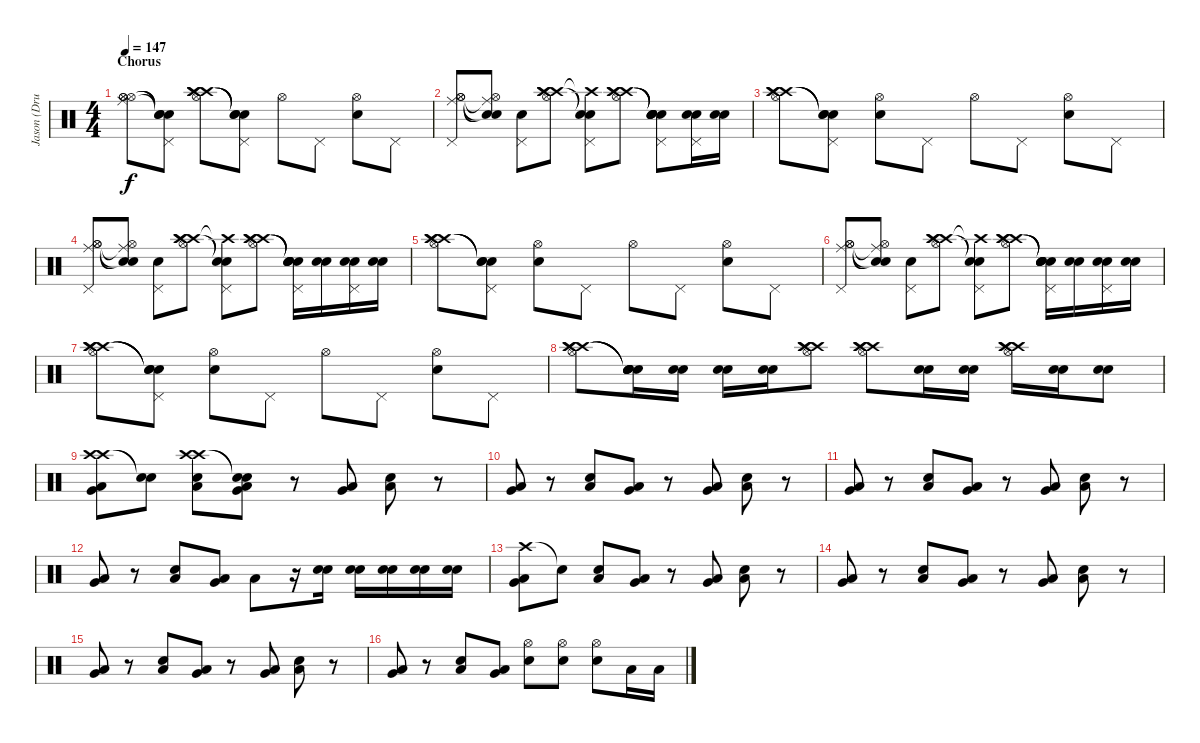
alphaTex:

\track ("Jason (Drums)" "Jason (Dru") {instrument percussion}
\staff {score}
\articulation defaults
\ts (4 4)
\section ("" "Chorus")
\tempo 147
\clef neutral
\ks c
("Ride (middle)" "Hi-Hat (open)" "Hi-Hat (open)" "Hi-Hat (open)").8{dy f} ("Snare (hit)"{t} "Snare (hit)"{t} "Snare (hit)"{t} "Pedal Hi-Hat (hit)").8 ("Crash high (hit)" "Crash high (hit)" "Crash high (hit)" "Hi-Hat (open)").8 ("Snare (hit)"{t} "Snare (hit)"{t} "Snare (hit)"{t} "Pedal Hi-Hat (hit)").8 "Hi-Hat (open)".8 "Pedal Hi-Hat (hit)".8 ("Electric Snare (hit)" "Hi-Hat (open)").8 "Pedal Hi-Hat (hit)".8 |
("Ride (middle)" "Hi-Hat (open)" "Hi-Hat (open)" "Pedal Hi-Hat (hit)").8 ("Snare (hit)"{t} "Ride (middle)"{t} "Snare (hit)"{t} "Hi-Hat (open)").8 ("Electric Snare (hit)" "Pedal Hi-Hat (hit)").8 ("Crash high (hit)" "Crash high (hit)" "Crash high (hit)" "Hi-Hat (open)").8 ("Snare (hit)"{t} "Crash high (hit)"{t} "Snare (hit)"{t} "Pedal Hi-Hat (hit)").8 ("Crash high (hit)" "Crash high (hit)" "Crash high (hit)" "Hi-Hat (open)").8 ("Snare (hit)"{t} "Snare (hit) 2"{t} "Snare (hit)"{t} "Pedal Hi-Hat (hit)" "Snare (hit) 2" "Electric Snare (hit)").8 ("Pedal Hi-Hat (hit)" "Snare (hit) 2" "Electric Snare (hit)").16 ("Snare (hit) 2" "Electric Snare (hit)").16 |
("Crash high (hit)" "Crash high (hit)" "Crash high (hit)" "Hi-Hat (open)").8 ("Snare (hit)"{t} "Snare (hit)"{t} "Snare (hit)"{t} "Pedal Hi-Hat (hit)").8 ("Electric Snare (hit)" "Hi-Hat (open)").8 "Pedal Hi-Hat (hit)".8 "Hi-Hat (open)".8 "Pedal Hi-Hat (hit)".8 ("Electric Snare (hit)" "Hi-Hat (open)").8 "Pedal Hi-Hat (hit)".8 |
("Ride (middle)" "Hi-Hat (open)" "Hi-Hat (open)" "Pedal Hi-Hat (hit)").8 ("Snare (hit)"{t} "Ride (middle)"{t} "Snare (hit)"{t} "Hi-Hat (open)").8 ("Electric Snare (hit)" "Pedal Hi-Hat (hit)").8 ("Crash high (hit)" "Crash high (hit)" "Crash high (hit)" "Hi-Hat (open)").8 ("Snare (hit)"{t} "Crash high (hit)"{t} "Snare (hit)"{t} "Pedal Hi-Hat (hit)").8 ("Crash high (hit)" "Crash high (hit)" "Crash high (hit)" "Hi-Hat (open)").8 ("Snare (hit)"{t} "Electric Snare (hit)"{t} "Snare (hit)"{t} "Pedal Hi-Hat (hit)" "Snare (hit) 2" "Electric Snare (hit)").16 ("Snare (hit) 2" "Electric Snare (hit)").16 ("Pedal Hi-Hat (hit)" "Snare (hit) 2" "Electric Snare (hit)").16 ("Snare (hit) 2" "Electric Snare (hit)").16 |
("Crash high (hit)" "Crash high (hit)" "Crash high (hit)" "Hi-Hat (open)").8 ("Snare (hit)"{t} "Snare (hit)"{t} "Snare (hit)"{t} "Pedal Hi-Hat (hit)").8 ("Electric Snare (hit)" "Hi-Hat (open)").8 "Pedal Hi-Hat (hit)".8 "Hi-Hat (open)".8 "Pedal Hi-Hat (hit)".8 ("Electric Snare (hit)" "Hi-Hat (open)").8 "Pedal Hi-Hat (hit)".8 |
("Ride (middle)" "Hi-Hat (open)" "Hi-Hat (open)" "Pedal Hi-Hat (hit)").8 ("Snare (hit)"{t} "Ride (middle)"{t} "Snare (hit)"{t} "Hi-Hat (open)").8 ("Electric Snare (hit)" "Pedal Hi-Hat (hit)").8 ("Crash high (hit)" "Crash high (hit)" "Crash high (hit)" "Hi-Hat (open)").8 ("Snare (hit)"{t} "Crash high (hit)"{t} "Snare (hit)"{t} "Pedal Hi-Hat (hit)").8 ("Crash high (hit)" "Crash high (hit)" "Crash high (hit)" "Hi-Hat (open)").8 ("Snare (hit)"{t} "Electric Snare (hit)"{t} "Snare (hit)"{t} "Pedal Hi-Hat (hit)" "Snare (hit) 2" "Electric Snare (hit)").16 ("Snare (hit) 2" "Electric Snare (hit)").16 ("Pedal Hi-Hat (hit)" "Snare (hit) 2" "Electric Snare (hit)").16 ("Snare (hit) 2" "Electric Snare (hit)").16 |
("Crash high (hit)" "Crash high (hit)" "Crash high (hit)" "Hi-Hat (open)").8 ("Snare (hit)"{t} "Snare (hit)"{t} "Snare (hit)"{t} "Pedal Hi-Hat (hit)").8 ("Electric Snare (hit)" "Hi-Hat (open)").8 "Pedal Hi-Hat (hit)".8 "Hi-Hat (open)".8 "Pedal Hi-Hat (hit)".8 ("Electric Snare (hit)" "Hi-Hat (open)").8 "Pedal Hi-Hat (hit)".8 |
("Crash high (hit)" "Crash high (hit)" "Crash high (hit)" "Hi-Hat (open)").8 ("Snare (hit)"{t} "Snare (hit)"{t} "Snare (hit)"{t} "Snare (hit) 2" "Electric Snare (hit)").16 ("Snare (hit) 2" "Electric Snare (hit)").16 ("Snare (hit) 2" "Electric Snare (hit)").16 ("Snare (hit) 2" "Electric Snare (hit)").16 ("Crash high (hit)" "Crash high (hit)" "Crash high (hit)" "Hi-Hat (open)").8 ("Crash high (hit)" "Crash high (hit)" "Crash high (hit)" "Hi-Hat (open)").8 ("Snare (hit) 2" "Electric Snare (hit)").16 ("Snare (hit) 2" "Electric Snare (hit)").16 ("Crash high (hit)" "Crash high (hit)" "Crash high (hit)" "Hi-Hat (open)").16 ("Snare (hit) 2" "Electric Snare (hit)").16 ("Snare (hit) 2" "Electric Snare (hit)").8 |
("Crash high (hit)" "Crash high (hit)" "Very Low Tom (hit)" "Low Tom (hit)").8 ("Snare (hit)"{t} "Snare (hit)"{t}).8 ("Crash high (hit)" "Crash high (hit)" "Electric Snare (hit)" "Low Tom (hit)").8 ("Snare (hit)"{t} "Snare (hit)"{t} "Very Low Tom (hit)" "Low Tom (hit)").8 r.8 ("Very Low Tom (hit)" "Low Tom (hit)").8 ("Electric Snare (hit)" "Low Tom (hit)").8 r.8 |
("Very Low Tom (hit)" "Low Tom (hit)").8 r.8 ("Electric Snare (hit)" "Low Tom (hit)").8 ("Very Low Tom (hit)" "Low Tom (hit)").8 r.8 ("Very Low Tom (hit)" "Low Tom (hit)").8 ("Electric Snare (hit)" "Low Tom (hit)").8 r.8 |
("Very Low Tom (hit)" "Low Tom (hit)").8 r.8 ("Electric Snare (hit)" "Low Tom (hit)").8 ("Very Low Tom (hit)" "Low Tom (hit)").8 r.8 ("Very Low Tom (hit)" "Low Tom (hit)").8 ("Electric Snare (hit)" "Low Tom (hit)").8 r.8 |
("Very Low Tom (hit)" "Low Tom (hit)").8 r.8 ("Electric Snare (hit)" "Low Tom (hit)").8 ("Very Low Tom (hit)" "Low Tom (hit)").8 "Low Tom (hit)".8 r.16 ("Snare (hit) 2" "Electric Snare (hit)").16 ("Snare (hit) 2" "Electric Snare (hit)").16 ("Snare (hit) 2" "Electric Snare (hit)").16 ("Snare (hit) 2" "Electric Snare (hit)").16 ("Snare (hit) 2" "Electric Snare (hit)").16 |
("Crash high (hit)" "Very Low Tom (hit)" "Low Tom (hit)").8 "Snare (hit)"{t}.8 ("Electric Snare (hit)" "Low Tom (hit)").8 ("Very Low Tom (hit)" "Low Tom (hit)").8 r.8 ("Very Low Tom (hit)" "Low Tom (hit)").8 ("Electric Snare (hit)" "Low Tom (hit)").8 r.8 |
("Very Low Tom (hit)" "Low Tom (hit)").8 r.8 ("Electric Snare (hit)" "Low Tom (hit)").8 ("Very Low Tom (hit)" "Low Tom (hit)").8 r.8 ("Very Low Tom (hit)" "Low Tom (hit)").8 ("Electric Snare (hit)" "Low Tom (hit)").8 r.8 |
("Very Low Tom (hit)" "Low Tom (hit)").8 r.8 ("Electric Snare (hit)" "Low Tom (hit)").8 ("Very Low Tom (hit)" "Low Tom (hit)").8 r.8 ("Very Low Tom (hit)" "Low Tom (hit)").8 ("Electric Snare (hit)" "Low Tom (hit)").8 r.8 |
("Very Low Tom (hit)" "Low Tom (hit)").8 r.8 ("Electric Snare (hit)" "Low Tom (hit)").8 ("Very Low Tom (hit)" "Low Tom (hit)").8 ("Hi-Hat (open)" "Snare (hit) 2").8 ("Hi-Hat (open)" "Snare (hit) 2").8 ("Hi-Hat (open)" "Snare (hit) 2").8 "Low Tom (hit)".16 "Low Tom (hit)".16
